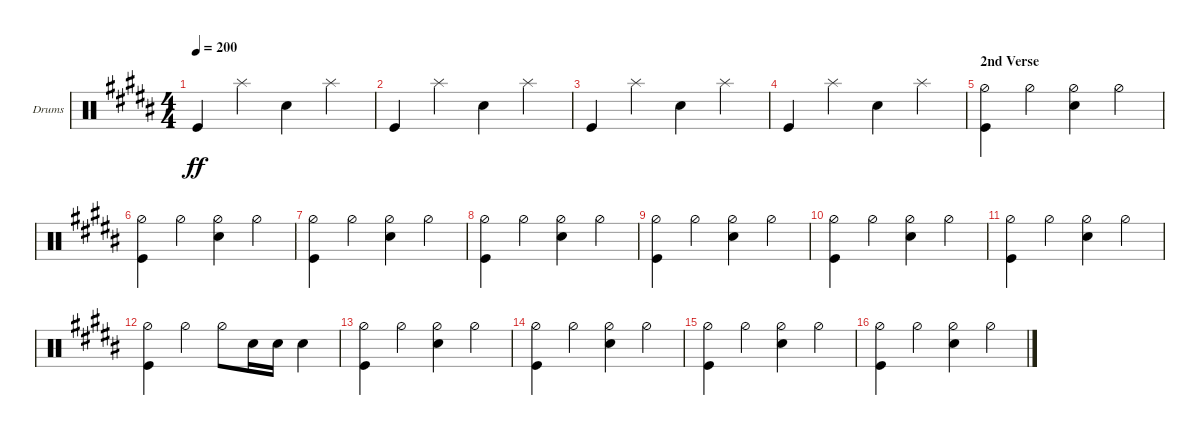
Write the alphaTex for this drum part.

\defaultSystemsLayout 4
\bracketExtendMode groupsimilarinstruments
\firstSystemTrackNameOrientation horizontal
\otherSystemsTrackNameOrientation horizontal
\track ("Drumkit" "Drums") {instrument percussion}
\staff {score}
\articulation defaults
\ts (4 4)
\tempo 200
\clef neutral
\ks b "Kick (hit)".4{dy ff} "Splash (hit)".4 "Snare (hit) 2".4 "Splash (hit)".4
|
"Kick (hit)".4 "Splash (hit)".4 "Snare (hit) 2".4 "Splash (hit)".4 |
"Kick (hit)".4 "Splash (hit)".4 "Snare (hit) 2".4 "Splash (hit)".4 |
"Kick (hit)".4 "Splash (hit)".4 "Snare (hit) 2".4 "Splash (hit)".4 |
\section ("" "2nd Verse")
("Hi-Hat (half)" "Kick (hit)").4 "Hi-Hat (half)".4 ("Hi-Hat (half)" "Snare (hit) 2").4 "Hi-Hat (half)".4 |
("Hi-Hat (half)" "Kick (hit)").4 "Hi-Hat (half)".4 ("Hi-Hat (half)" "Snare (hit) 2").4 "Hi-Hat (half)".4 |
("Hi-Hat (half)" "Kick (hit)").4 "Hi-Hat (half)".4 ("Hi-Hat (half)" "Snare (hit) 2").4 "Hi-Hat (half)".4 |
("Hi-Hat (half)" "Kick (hit)").4 "Hi-Hat (half)".4 ("Hi-Hat (half)" "Snare (hit) 2").4 "Hi-Hat (half)".4 |
("Hi-Hat (half)" "Kick (hit)").4 "Hi-Hat (half)".4 ("Hi-Hat (half)" "Snare (hit) 2").4 "Hi-Hat (half)".4 |
("Hi-Hat (half)" "Kick (hit)").4 "Hi-Hat (half)".4 ("Hi-Hat (half)" "Snare (hit) 2").4 "Hi-Hat (half)".4 |
("Hi-Hat (half)" "Kick (hit)").4 "Hi-Hat (half)".4 ("Hi-Hat (half)" "Snare (hit) 2").4 "Hi-Hat (half)".4 |
("Hi-Hat (half)" "Kick (hit)").4 "Hi-Hat (half)".4 "Hi-Hat (half)".8 "Snare (hit) 2".16 "Snare (hit) 2".16 "Snare (hit) 2".4 |
("Hi-Hat (half)" "Kick (hit)").4 "Hi-Hat (half)".4 ("Hi-Hat (half)" "Snare (hit) 2").4 "Hi-Hat (half)".4 |
("Hi-Hat (half)" "Kick (hit)").4 "Hi-Hat (half)".4 ("Hi-Hat (half)" "Snare (hit) 2").4 "Hi-Hat (half)".4 |
("Hi-Hat (half)" "Kick (hit)").4 "Hi-Hat (half)".4 ("Hi-Hat (half)" "Snare (hit) 2").4 "Hi-Hat (half)".4 |
("Hi-Hat (half)" "Kick (hit)").4 "Hi-Hat (half)".4 ("Hi-Hat (half)" "Snare (hit) 2").4 "Hi-Hat (half)".4
